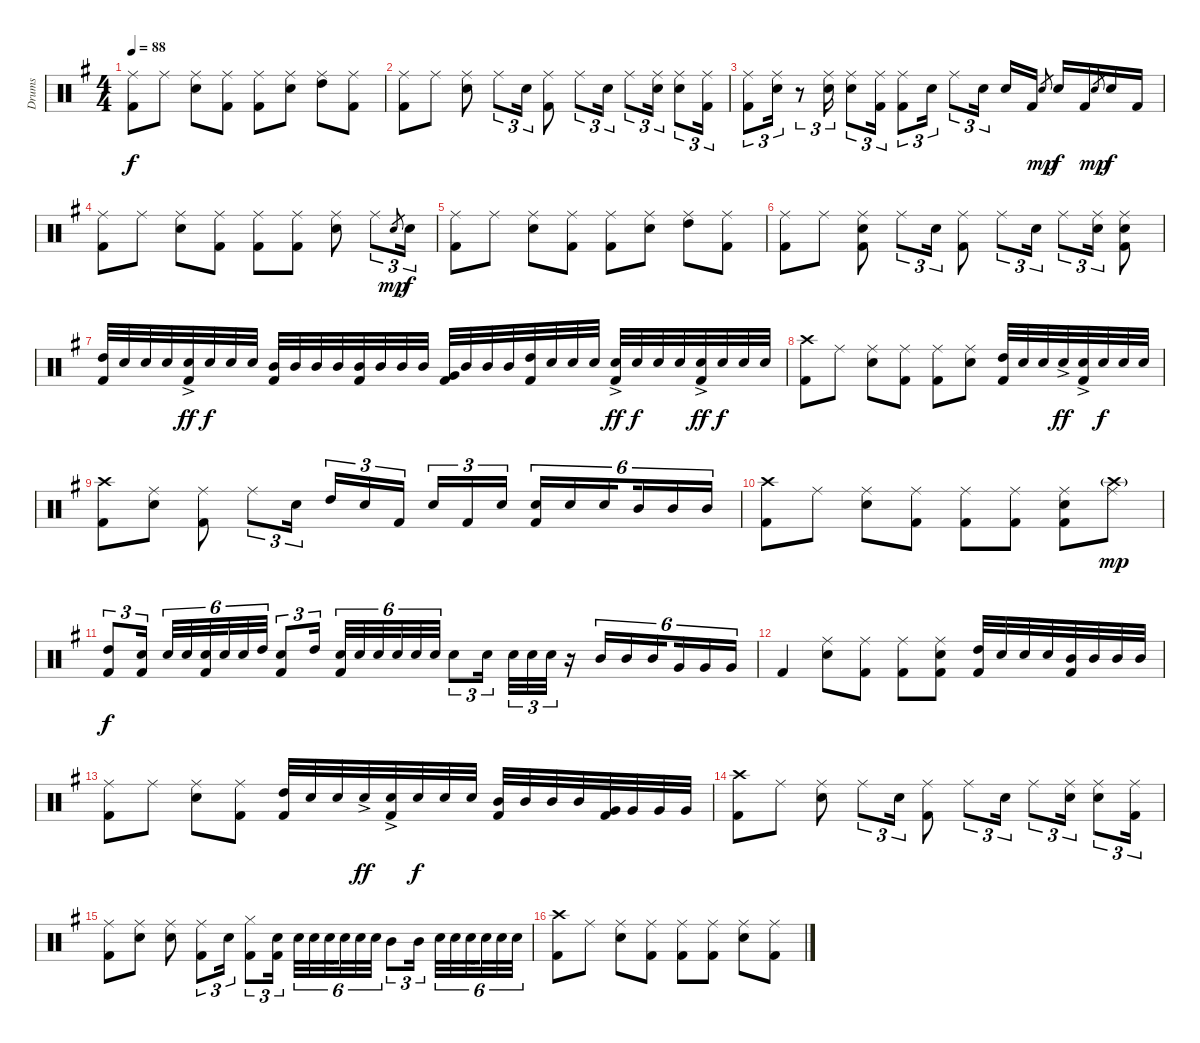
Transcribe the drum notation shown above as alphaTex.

\track ("Drums" "Drums") {instrument percussion}
\staff {score}
\articulation defaults
\ts (4 4)
\tempo 88
\clef neutral
\ks g
("Ride (middle)" "Kick (hit) 2").8{dy f} "Ride (middle)".8 ("Ride (middle)" "Electric Snare (hit)").8 ("Ride (middle)" "Kick (hit) 2").8 ("Ride (middle)" "Kick (hit) 2").8 ("Ride (middle)" "Electric Snare (hit)").8 ("Ride (middle)" "High Tom (hit)").8 ("Ride (middle)" "Kick (hit) 2").8 |
("Ride (middle)" "Kick (hit) 2").8 "Ride (middle)".8 ("Ride (middle)" "Electric Snare (hit)").8 "Ride (middle)".8{tu (3 2)} "Electric Snare (hit)".16{tu (3 2)} ("Ride (middle)" "Kick (hit) 2").8 "Ride (middle)".8{tu (3 2)} "Electric Snare (hit)".16{tu (3 2)} "Ride (middle)".8{tu (3 2)} ("Ride (middle)" "Electric Snare (hit)").16{tu (3 2)} ("Ride (middle)" "Electric Snare (hit)").8{tu (3 2)} ("Ride (middle)" "Kick (hit) 2").16{tu (3 2)} |
("Ride (middle)" "Kick (hit) 2").8{tu (3 2)} ("Ride (middle)" "Electric Snare (hit)").16{tu (3 2)} r.8{tu (3 2)} ("Ride (middle)" "Electric Snare (hit)").16{tu (3 2)} ("Ride (middle)" "Electric Snare (hit)").8{tu (3 2)} ("Ride (middle)" "Kick (hit) 2").16{tu (3 2)} ("Ride (middle)" "Kick (hit) 2").8{tu (3 2)} "Electric Snare (hit)".16{tu (3 2)} "Ride (middle)".8{tu (3 2)} "Electric Snare (hit)".16{tu (3 2) beam splitsecondary} "Electric Snare (hit)".16 "Kick (hit) 2".16 "Electric Snare (hit)".8{gr dy mp} "Electric Snare (hit)".16{dy f} "Kick (hit) 2".16 "Electric Snare (hit)".8{gr dy mp} "Electric Snare (hit)".16{dy f} "Kick (hit) 2".16 |
("Ride (middle)" "Kick (hit) 2").8 "Ride (middle)".8 ("Ride (middle)" "Electric Snare (hit)").8 ("Ride (middle)" "Kick (hit) 2").8 ("Ride (middle)" "Kick (hit) 2").8 ("Ride (middle)" "Kick (hit) 2").8 ("Ride (middle)" "Electric Snare (hit)").8 "Ride (middle)".8{tu (3 2)} "Electric Snare (hit)".8{gr dy mp} "Electric Snare (hit)".16{tu (3 2) dy f} |
("Ride (middle)" "Kick (hit) 2").8 "Ride (middle)".8 ("Ride (middle)" "Electric Snare (hit)").8 ("Ride (middle)" "Kick (hit) 2").8 ("Ride (middle)" "Kick (hit) 2").8 ("Ride (middle)" "Electric Snare (hit)").8 ("Ride (middle)" "High Tom (hit)").8 ("Ride (middle)" "Kick (hit) 2").8 |
("Ride (middle)" "Kick (hit) 2").8 "Ride (middle)".8 ("Ride (middle)" "Electric Snare (hit)" "Kick (hit) 2").8 "Ride (middle)".8{tu (3 2)} "Electric Snare (hit)".16{tu (3 2)} ("Ride (middle)" "Kick (hit) 2").8 "Ride (middle)".8{tu (3 2)} "Electric Snare (hit)".16{tu (3 2)} "Ride (middle)".8{tu (3 2)} ("Ride (middle)" "Electric Snare (hit)").16{tu (3 2)} ("Ride (middle)" "Electric Snare (hit)" "Kick (hit) 2").8 |
("High Tom (hit)" "Kick (hit) 2").32 "Electric Snare (hit)".32 "Electric Snare (hit)".32 "Electric Snare (hit)".32 ("Electric Snare (hit)"{ac} "Kick (hit) 2").32{dy ff} "Electric Snare (hit)".32{dy f} "Electric Snare (hit)".32 "Electric Snare (hit)".32 ("Mid Tom (hit)" "Kick (hit) 2").32 "Mid Tom (hit)".32 "Mid Tom (hit)".32 "Mid Tom (hit)".32 ("Mid Tom (hit)" "Kick (hit) 2").32 "Mid Tom (hit)".32 "Mid Tom (hit)".32 "Mid Tom (hit)".32 ("Very Low Tom (hit)" "Kick (hit) 2").32 "Mid Tom (hit)".32 "Mid Tom (hit)".32 "Mid Tom (hit)".32 ("High Tom (hit)" "Kick (hit) 2").32 "Electric Snare (hit)".32 "Electric Snare (hit)".32 "Electric Snare (hit)".32 ("Electric Snare (hit)"{ac} "Kick (hit) 2").32{dy ff} "Electric Snare (hit)".32{dy f} "Electric Snare (hit)".32 "Electric Snare (hit)".32 ("Electric Snare (hit)"{ac} "Kick (hit) 2").32{dy ff} "Electric Snare (hit)".32{dy f} "Electric Snare (hit)".32 "Electric Snare (hit)".32 |
("Crash high (hit)" "Kick (hit) 2").8 "Ride (middle)".8 ("Ride (middle)" "Electric Snare (hit)").8 ("Ride (middle)" "Kick (hit) 2").8 ("Ride (middle)" "Kick (hit) 2").8 ("Ride (middle)" "Electric Snare (hit)").8 ("High Tom (hit)" "Kick (hit) 2").32 "Electric Snare (hit)".32 "Electric Snare (hit)".32 "Electric Snare (hit)"{ac}.32{dy ff} ("Electric Snare (hit)"{ac} "Kick (hit) 2").32 "Electric Snare (hit)".32{dy f} "Electric Snare (hit)".32 "Electric Snare (hit)".32 |
("Crash high (hit)" "Kick (hit) 2").8 ("Ride (middle)" "Electric Snare (hit)").8 ("Ride (middle)" "Kick (hit) 2").8 "Ride (middle)".8{tu (3 2)} "Electric Snare (hit)".16{tu (3 2)} "High Tom (hit)".16{tu (3 2)} "Electric Snare (hit)".16{tu (3 2)} "Kick (hit) 2".16{tu (3 2) beam splitsecondary} "Electric Snare (hit)".16{tu (3 2)} "Kick (hit) 2".16{tu (3 2)} "Electric Snare (hit)".16{tu (3 2)} ("Electric Snare (hit)" "Kick (hit) 2").16{tu (6 4)} "Electric Snare (hit)".16{tu (6 4)} "Electric Snare (hit)".16{tu (6 4) beam splitsecondary} "Mid Tom (hit)".16{tu (6 4)} "Mid Tom (hit)".16{tu (6 4)} "Mid Tom (hit)".16{tu (6 4)} |
("Crash high (hit)" "Kick (hit) 2").8 "Ride (middle)".8 ("Ride (middle)" "Electric Snare (hit)").8 ("Ride (middle)" "Kick (hit) 2").8 ("Ride (middle)" "Kick (hit) 2").8 ("Ride (middle)" "Kick (hit) 2").8 ("Ride (middle)" "Electric Snare (hit)" "Kick (hit) 2").8 ("Crash high (hit)"{g} "Ride (middle)").8{dy mp} |
("High Tom (hit)" "Kick (hit) 2").8{tu (3 2) dy f} ("Electric Snare (hit)" "Kick (hit) 2").16{tu (3 2) beam splitsecondary} "Electric Snare (hit)".32{tu (6 4)} "Electric Snare (hit)".32{tu (6 4)} ("Electric Snare (hit)" "Kick (hit) 2").32{tu (6 4) beam splitsecondary} "Electric Snare (hit)".32{tu (6 4)} "Electric Snare (hit)".32{tu (6 4)} "High Tom (hit)".32{tu (6 4)} ("Electric Snare (hit)" "Kick (hit) 2").8{tu (3 2)} "High Tom (hit)".16{tu (3 2) beam splitsecondary} ("Electric Snare (hit)" "Kick (hit) 2").32{tu (6 4)} "Electric Snare (hit)".32{tu (6 4)} "Electric Snare (hit)".32{tu (6 4) beam splitsecondary} "Electric Snare (hit)".32{tu (6 4)} "Electric Snare (hit)".32{tu (6 4)} "Electric Snare (hit)".32{tu (6 4)} "Electric Snare (hit)".8{tu (3 2)} "Electric Snare (hit)".16{tu (3 2) beam splitsecondary} "Electric Snare (hit)".32{tu (3 2)} "Electric Snare (hit)".32{tu (3 2)} "Electric Snare (hit)".32{tu (3 2)} r.16 "Mid Tom (hit)".16{tu (6 4)} "Mid Tom (hit)".16{tu (6 4)} "Mid Tom (hit)".16{tu (6 4) beam splitsecondary} "Very Low Tom (hit)".16{tu (6 4)} "Very Low Tom (hit)".16{tu (6 4)} "Very Low Tom (hit)".16{tu (6 4)} |
"Kick (hit) 2".4 ("Ride (middle)" "Electric Snare (hit)").8 ("Ride (middle)" "Kick (hit) 2").8 ("Ride (middle)" "Kick (hit) 2").8 ("Ride (middle)" "Electric Snare (hit)" "Kick (hit) 2").8 ("High Tom (hit)" "Kick (hit) 2").32 "Electric Snare (hit)".32 "Electric Snare (hit)".32 "Electric Snare (hit)".32 ("Mid Tom (hit)" "Kick (hit) 2").32 "Mid Tom (hit)".32 "Mid Tom (hit)".32 "Mid Tom (hit)".32 |
("Ride (middle)" "Kick (hit) 2").8 "Ride (middle)".8 ("Ride (middle)" "Electric Snare (hit)").8 ("Ride (middle)" "Kick (hit) 2").8 ("High Tom (hit)" "Kick (hit) 2").32 "Electric Snare (hit)".32 "Electric Snare (hit)".32 "Electric Snare (hit)"{ac}.32{dy ff} ("Electric Snare (hit)"{ac} "Kick (hit) 2").32 "Electric Snare (hit)".32{dy f} "Electric Snare (hit)".32 "Electric Snare (hit)".32 ("Mid Tom (hit)" "Kick (hit) 2").32 "Mid Tom (hit)".32 "Mid Tom (hit)".32 "Mid Tom (hit)".32 ("Very Low Tom (hit)" "Kick (hit) 2").32 "Very Low Tom (hit)".32 "Very Low Tom (hit)".32 "Very Low Tom (hit)".32 |
("Crash high (hit)" "Kick (hit) 2").8 "Ride (middle)".8 ("Ride (middle)" "Electric Snare (hit)").8 "Ride (middle)".8{tu (3 2)} "Electric Snare (hit)".16{tu (3 2)} ("Ride (middle)" "Kick (hit) 2").8 "Ride (middle)".8{tu (3 2)} "Electric Snare (hit)".16{tu (3 2)} "Ride (middle)".8{tu (3 2)} ("Ride (middle)" "Electric Snare (hit)").16{tu (3 2)} ("Ride (middle)" "Electric Snare (hit)").8{tu (3 2)} ("Ride (middle)" "Kick (hit) 2").16{tu (3 2)} |
("Ride (middle)" "Kick (hit) 2").8 ("Ride (middle)" "Electric Snare (hit)").8 ("Ride (middle)" "Electric Snare (hit)").8 ("Ride (middle)" "Kick (hit) 2").8{tu (3 2)} "Electric Snare (hit)".16{tu (3 2)} ("Hi-Hat (closed)" "Kick (hit) 2").8{tu (3 2)} ("Electric Snare (hit)" "Kick (hit) 2").16{tu (3 2) beam splitsecondary} "Electric Snare (hit)".32{tu (6 4)} "Electric Snare (hit)".32{tu (6 4)} "Electric Snare (hit)".32{tu (6 4) beam splitsecondary} "Electric Snare (hit)".32{tu (6 4)} "Electric Snare (hit)".32{tu (6 4)} "Electric Snare (hit)".32{tu (6 4)} "Mid Tom (hit)".8{tu (3 2)} "Mid Tom (hit)".16{tu (3 2) beam splitsecondary} "Electric Snare (hit)".32{tu (6 4)} "Electric Snare (hit)".32{tu (6 4)} "Electric Snare (hit)".32{tu (6 4) beam splitsecondary} "Electric Snare (hit)".32{tu (6 4)} "Electric Snare (hit)".32{tu (6 4)} "Electric Snare (hit)".32{tu (6 4)} |
("Crash high (hit)" "Kick (hit) 2").8 "Ride (middle)".8 ("Ride (middle)" "Electric Snare (hit)").8 ("Ride (middle)" "Kick (hit) 2").8 ("Ride (middle)" "Kick (hit) 2").8 ("Ride (middle)" "Kick (hit) 2").8 ("Ride (middle)" "Electric Snare (hit)").8 ("Ride (middle)" "Kick (hit) 2").8
